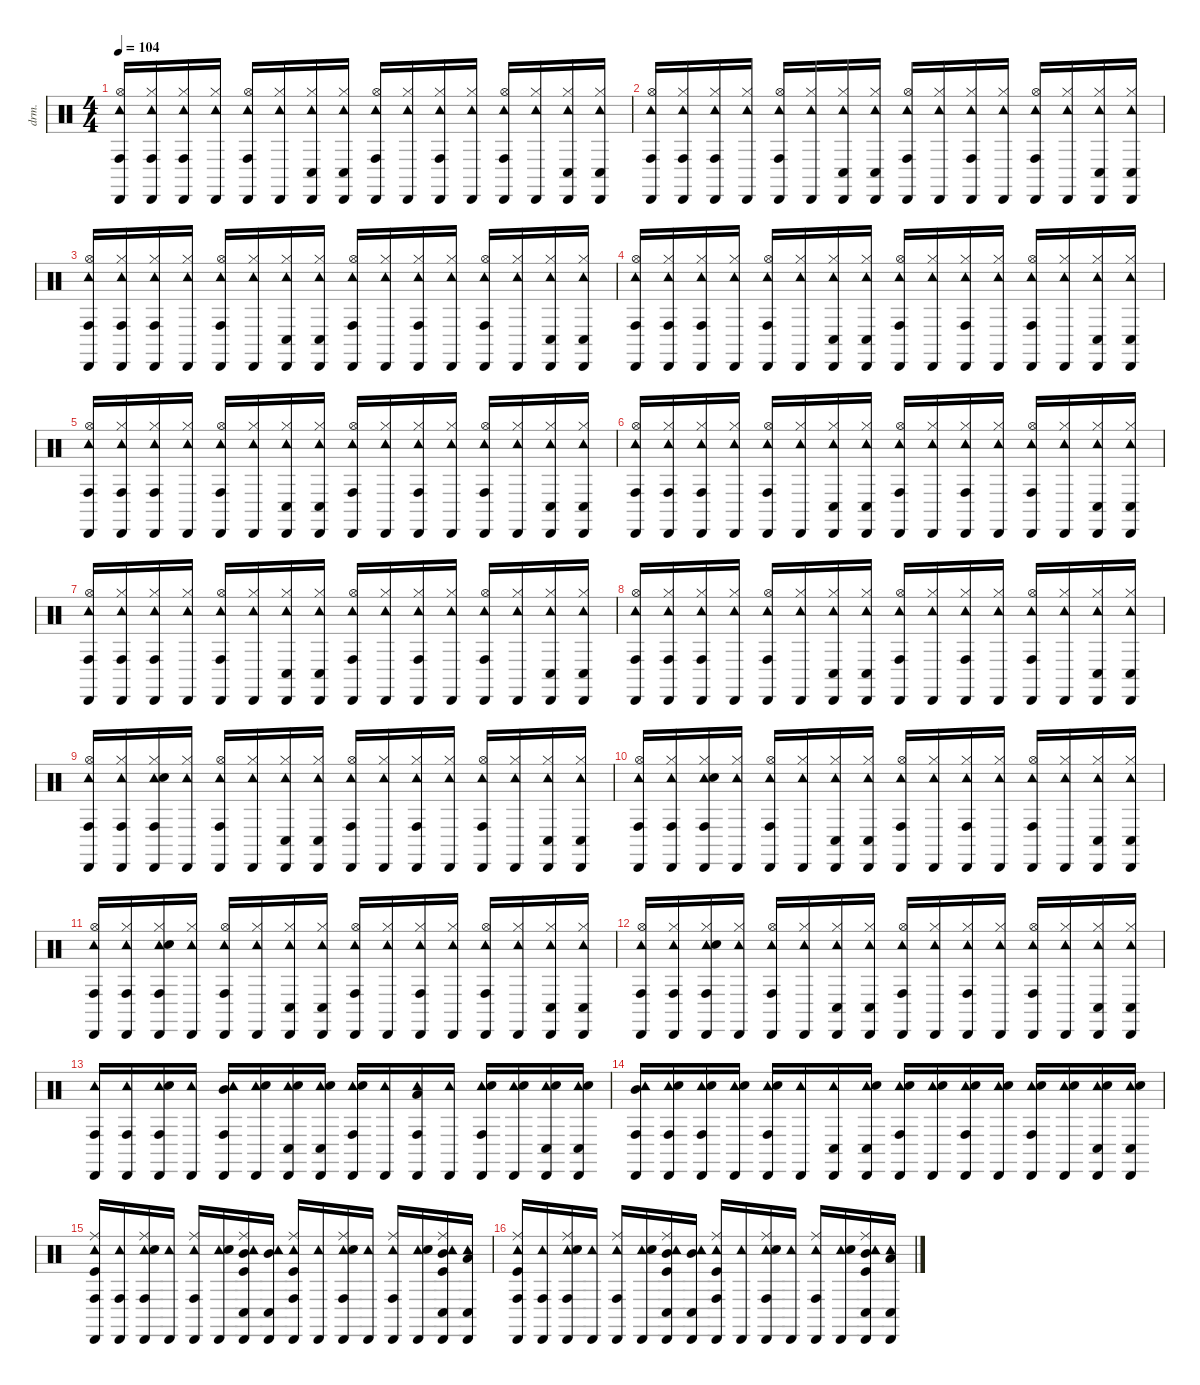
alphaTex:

\defaultSystemsLayout 4
\hideDynamics
\bracketExtendMode nobrackets
\otherSystemsTrackNameOrientation horizontal
\track ("Drums" "drm.") {instrument percussion}
\staff {score}
\articulation defaults
\ts (4 4)
\tempo 104
\clef neutral
\ks c
("Cabasa (hit)" "Hi-Hat (open)" "Tambourine (hit)" "Conga high (hit)").16{dy f beam Up} ("Cabasa (hit)" "Hi-Hat (closed)" "Tambourine (hit)" "Conga high (hit)").16{beam Up} ("Cabasa (hit)" "Hi-Hat (closed)" "Tambourine (hit)" "Conga high (hit)").16{beam Up} ("Cabasa (hit)" "Hi-Hat (closed)" "Tambourine (hit)").16{beam Up} ("Cabasa (hit)" "Hi-Hat (open)" "Tambourine (hit)" "Conga high (hit)").16{beam Up} ("Cabasa (hit)" "Hi-Hat (closed)" "Tambourine (hit)").16{beam Up} ("Cabasa (hit)" "Hi-Hat (closed)" "Tambourine (hit)" "Conga low (hit)").16{beam Up} ("Cabasa (hit)" "Hi-Hat (closed)" "Tambourine (hit)" "Conga low (hit)").16{beam Up} ("Cabasa (hit)" "Hi-Hat (open)" "Tambourine (hit)" "Conga high (hit)").16{beam Up} ("Cabasa (hit)" "Hi-Hat (closed)" "Tambourine (hit)").16{beam Up} ("Cabasa (hit)" "Hi-Hat (closed)" "Tambourine (hit)" "Conga high (hit)").16{beam Up} ("Cabasa (hit)" "Hi-Hat (closed)" "Tambourine (hit)").16{beam Up} ("Cabasa (hit)" "Hi-Hat (open)" "Tambourine (hit)" "Conga high (hit)").16{beam Up} ("Cabasa (hit)" "Hi-Hat (closed)" "Tambourine (hit)").16{beam Up} ("Cabasa (hit)" "Hi-Hat (closed)" "Tambourine (hit)" "Conga low (hit)").16{beam Up} ("Cabasa (hit)" "Hi-Hat (closed)" "Tambourine (hit)" "Conga low (hit)").16{beam Up} |
("Cabasa (hit)" "Hi-Hat (open)" "Tambourine (hit)" "Conga high (hit)").16{beam Up} ("Cabasa (hit)" "Hi-Hat (closed)" "Tambourine (hit)" "Conga high (hit)").16{beam Up} ("Cabasa (hit)" "Hi-Hat (closed)" "Tambourine (hit)" "Conga high (hit)").16{beam Up} ("Cabasa (hit)" "Hi-Hat (closed)" "Tambourine (hit)").16{beam Up} ("Cabasa (hit)" "Hi-Hat (open)" "Tambourine (hit)" "Conga high (hit)").16{beam Up} ("Cabasa (hit)" "Hi-Hat (closed)" "Tambourine (hit)").16{beam Up} ("Cabasa (hit)" "Hi-Hat (closed)" "Tambourine (hit)" "Conga low (hit)").16{beam Up} ("Cabasa (hit)" "Hi-Hat (closed)" "Tambourine (hit)" "Conga low (hit)").16{beam Up} ("Cabasa (hit)" "Hi-Hat (open)" "Tambourine (hit)" "Conga high (hit)").16{beam Up} ("Cabasa (hit)" "Hi-Hat (closed)" "Tambourine (hit)").16{beam Up} ("Cabasa (hit)" "Hi-Hat (closed)" "Tambourine (hit)" "Conga high (hit)").16{beam Up} ("Cabasa (hit)" "Hi-Hat (closed)" "Tambourine (hit)").16{beam Up} ("Cabasa (hit)" "Hi-Hat (open)" "Tambourine (hit)" "Conga high (hit)").16{beam Up} ("Cabasa (hit)" "Hi-Hat (closed)" "Tambourine (hit)").16{beam Up} ("Cabasa (hit)" "Hi-Hat (closed)" "Tambourine (hit)" "Conga low (hit)").16{beam Up} ("Cabasa (hit)" "Hi-Hat (closed)" "Tambourine (hit)" "Conga low (hit)").16{beam Up} |
("Cabasa (hit)" "Hi-Hat (open)" "Tambourine (hit)" "Conga high (hit)").16{beam Up} ("Cabasa (hit)" "Hi-Hat (closed)" "Tambourine (hit)" "Conga high (hit)").16{beam Up} ("Cabasa (hit)" "Hi-Hat (closed)" "Tambourine (hit)" "Conga high (hit)").16{beam Up} ("Cabasa (hit)" "Hi-Hat (closed)" "Tambourine (hit)").16{beam Up} ("Cabasa (hit)" "Hi-Hat (open)" "Tambourine (hit)" "Conga high (hit)").16{beam Up} ("Cabasa (hit)" "Hi-Hat (closed)" "Tambourine (hit)").16{beam Up} ("Cabasa (hit)" "Hi-Hat (closed)" "Tambourine (hit)" "Conga low (hit)").16{beam Up} ("Cabasa (hit)" "Hi-Hat (closed)" "Tambourine (hit)" "Conga low (hit)").16{beam Up} ("Cabasa (hit)" "Hi-Hat (open)" "Tambourine (hit)" "Conga high (hit)").16{beam Up} ("Cabasa (hit)" "Hi-Hat (closed)" "Tambourine (hit)").16{beam Up} ("Cabasa (hit)" "Hi-Hat (closed)" "Tambourine (hit)" "Conga high (hit)").16{beam Up} ("Cabasa (hit)" "Hi-Hat (closed)" "Tambourine (hit)").16{beam Up} ("Cabasa (hit)" "Hi-Hat (open)" "Tambourine (hit)" "Conga high (hit)").16{beam Up} ("Cabasa (hit)" "Hi-Hat (closed)" "Tambourine (hit)").16{beam Up} ("Cabasa (hit)" "Hi-Hat (closed)" "Tambourine (hit)" "Conga low (hit)").16{beam Up} ("Cabasa (hit)" "Hi-Hat (closed)" "Tambourine (hit)" "Conga low (hit)").16{beam Up} |
("Cabasa (hit)" "Hi-Hat (open)" "Tambourine (hit)" "Conga high (hit)").16{beam Up} ("Cabasa (hit)" "Hi-Hat (closed)" "Tambourine (hit)" "Conga high (hit)").16{beam Up} ("Cabasa (hit)" "Hi-Hat (closed)" "Tambourine (hit)" "Conga high (hit)").16{beam Up} ("Cabasa (hit)" "Hi-Hat (closed)" "Tambourine (hit)").16{beam Up} ("Cabasa (hit)" "Hi-Hat (open)" "Tambourine (hit)" "Conga high (hit)").16{beam Up} ("Cabasa (hit)" "Hi-Hat (closed)" "Tambourine (hit)").16{beam Up} ("Cabasa (hit)" "Hi-Hat (closed)" "Tambourine (hit)" "Conga low (hit)").16{beam Up} ("Cabasa (hit)" "Hi-Hat (closed)" "Tambourine (hit)" "Conga low (hit)").16{beam Up} ("Cabasa (hit)" "Hi-Hat (open)" "Tambourine (hit)" "Conga high (hit)").16{beam Up} ("Cabasa (hit)" "Hi-Hat (closed)" "Tambourine (hit)").16{beam Up} ("Cabasa (hit)" "Hi-Hat (closed)" "Tambourine (hit)" "Conga high (hit)").16{beam Up} ("Cabasa (hit)" "Hi-Hat (closed)" "Tambourine (hit)").16{beam Up} ("Cabasa (hit)" "Hi-Hat (open)" "Tambourine (hit)" "Conga high (hit)").16{beam Up} ("Cabasa (hit)" "Hi-Hat (closed)" "Tambourine (hit)").16{beam Up} ("Cabasa (hit)" "Hi-Hat (closed)" "Tambourine (hit)" "Conga low (hit)").16{beam Up} ("Cabasa (hit)" "Hi-Hat (closed)" "Tambourine (hit)" "Conga low (hit)").16{beam Up} |
("Cabasa (hit)" "Hi-Hat (open)" "Tambourine (hit)" "Conga high (hit)").16{beam Up} ("Cabasa (hit)" "Hi-Hat (closed)" "Tambourine (hit)" "Conga high (hit)").16{beam Up} ("Cabasa (hit)" "Hi-Hat (closed)" "Tambourine (hit)" "Conga high (hit)").16{beam Up} ("Cabasa (hit)" "Hi-Hat (closed)" "Tambourine (hit)").16{beam Up} ("Cabasa (hit)" "Hi-Hat (open)" "Tambourine (hit)" "Conga high (hit)").16{beam Up} ("Cabasa (hit)" "Hi-Hat (closed)" "Tambourine (hit)").16{beam Up} ("Cabasa (hit)" "Hi-Hat (closed)" "Tambourine (hit)" "Conga low (hit)").16{beam Up} ("Cabasa (hit)" "Hi-Hat (closed)" "Tambourine (hit)" "Conga low (hit)").16{beam Up} ("Cabasa (hit)" "Hi-Hat (open)" "Tambourine (hit)" "Conga high (hit)").16{beam Up} ("Cabasa (hit)" "Hi-Hat (closed)" "Tambourine (hit)").16{beam Up} ("Cabasa (hit)" "Hi-Hat (closed)" "Tambourine (hit)" "Conga high (hit)").16{beam Up} ("Cabasa (hit)" "Hi-Hat (closed)" "Tambourine (hit)").16{beam Up} ("Cabasa (hit)" "Hi-Hat (open)" "Tambourine (hit)" "Conga high (hit)").16{beam Up} ("Cabasa (hit)" "Hi-Hat (closed)" "Tambourine (hit)").16{beam Up} ("Cabasa (hit)" "Hi-Hat (closed)" "Tambourine (hit)" "Conga low (hit)").16{beam Up} ("Cabasa (hit)" "Hi-Hat (closed)" "Tambourine (hit)" "Conga low (hit)").16{beam Up} |
("Cabasa (hit)" "Hi-Hat (open)" "Tambourine (hit)" "Conga high (hit)").16{beam Up} ("Cabasa (hit)" "Hi-Hat (closed)" "Tambourine (hit)" "Conga high (hit)").16{beam Up} ("Cabasa (hit)" "Hi-Hat (closed)" "Tambourine (hit)" "Conga high (hit)").16{beam Up} ("Cabasa (hit)" "Hi-Hat (closed)" "Tambourine (hit)").16{beam Up} ("Cabasa (hit)" "Hi-Hat (open)" "Tambourine (hit)" "Conga high (hit)").16{beam Up} ("Cabasa (hit)" "Hi-Hat (closed)" "Tambourine (hit)").16{beam Up} ("Cabasa (hit)" "Hi-Hat (closed)" "Tambourine (hit)" "Conga low (hit)").16{beam Up} ("Cabasa (hit)" "Hi-Hat (closed)" "Tambourine (hit)" "Conga low (hit)").16{beam Up} ("Cabasa (hit)" "Hi-Hat (open)" "Tambourine (hit)" "Conga high (hit)").16{beam Up} ("Cabasa (hit)" "Hi-Hat (closed)" "Tambourine (hit)").16{beam Up} ("Cabasa (hit)" "Hi-Hat (closed)" "Tambourine (hit)" "Conga high (hit)").16{beam Up} ("Cabasa (hit)" "Hi-Hat (closed)" "Tambourine (hit)").16{beam Up} ("Cabasa (hit)" "Hi-Hat (open)" "Tambourine (hit)" "Conga high (hit)").16{beam Up} ("Cabasa (hit)" "Hi-Hat (closed)" "Tambourine (hit)").16{beam Up} ("Cabasa (hit)" "Hi-Hat (closed)" "Tambourine (hit)" "Conga low (hit)").16{beam Up} ("Cabasa (hit)" "Hi-Hat (closed)" "Tambourine (hit)" "Conga low (hit)").16{beam Up} |
("Cabasa (hit)" "Hi-Hat (open)" "Tambourine (hit)" "Conga high (hit)").16{beam Up} ("Cabasa (hit)" "Hi-Hat (closed)" "Tambourine (hit)" "Conga high (hit)").16{beam Up} ("Cabasa (hit)" "Hi-Hat (closed)" "Tambourine (hit)" "Conga high (hit)").16{beam Up} ("Cabasa (hit)" "Hi-Hat (closed)" "Tambourine (hit)").16{beam Up} ("Cabasa (hit)" "Hi-Hat (open)" "Tambourine (hit)" "Conga high (hit)").16{beam Up} ("Cabasa (hit)" "Hi-Hat (closed)" "Tambourine (hit)").16{beam Up} ("Cabasa (hit)" "Hi-Hat (closed)" "Tambourine (hit)" "Conga low (hit)").16{beam Up} ("Cabasa (hit)" "Hi-Hat (closed)" "Tambourine (hit)" "Conga low (hit)").16{beam Up} ("Cabasa (hit)" "Hi-Hat (open)" "Tambourine (hit)" "Conga high (hit)").16{beam Up} ("Cabasa (hit)" "Hi-Hat (closed)" "Tambourine (hit)").16{beam Up} ("Cabasa (hit)" "Hi-Hat (closed)" "Tambourine (hit)" "Conga high (hit)").16{beam Up} ("Cabasa (hit)" "Hi-Hat (closed)" "Tambourine (hit)").16{beam Up} ("Cabasa (hit)" "Hi-Hat (open)" "Tambourine (hit)" "Conga high (hit)").16{beam Up} ("Cabasa (hit)" "Hi-Hat (closed)" "Tambourine (hit)").16{beam Up} ("Cabasa (hit)" "Hi-Hat (closed)" "Tambourine (hit)" "Conga low (hit)").16{beam Up} ("Cabasa (hit)" "Hi-Hat (closed)" "Tambourine (hit)" "Conga low (hit)").16{beam Up} |
("Cabasa (hit)" "Hi-Hat (open)" "Tambourine (hit)" "Conga high (hit)").16{beam Up} ("Cabasa (hit)" "Hi-Hat (closed)" "Tambourine (hit)" "Conga high (hit)").16{beam Up} ("Cabasa (hit)" "Hi-Hat (closed)" "Tambourine (hit)" "Conga high (hit)").16{beam Up} ("Cabasa (hit)" "Hi-Hat (closed)" "Tambourine (hit)").16{beam Up} ("Cabasa (hit)" "Hi-Hat (open)" "Tambourine (hit)" "Conga high (hit)").16{beam Up} ("Cabasa (hit)" "Hi-Hat (closed)" "Tambourine (hit)").16{beam Up} ("Cabasa (hit)" "Hi-Hat (closed)" "Tambourine (hit)" "Conga low (hit)").16{beam Up} ("Cabasa (hit)" "Hi-Hat (closed)" "Tambourine (hit)" "Conga low (hit)").16{beam Up} ("Cabasa (hit)" "Hi-Hat (open)" "Tambourine (hit)" "Conga high (hit)").16{beam Up} ("Cabasa (hit)" "Hi-Hat (closed)" "Tambourine (hit)").16{beam Up} ("Cabasa (hit)" "Hi-Hat (closed)" "Tambourine (hit)" "Conga high (hit)").16{beam Up} ("Cabasa (hit)" "Hi-Hat (closed)" "Tambourine (hit)").16{beam Up} ("Cabasa (hit)" "Hi-Hat (open)" "Tambourine (hit)" "Conga high (hit)").16{beam Up} ("Cabasa (hit)" "Hi-Hat (closed)" "Tambourine (hit)").16{beam Up} ("Cabasa (hit)" "Hi-Hat (closed)" "Tambourine (hit)" "Conga low (hit)").16{beam Up} ("Cabasa (hit)" "Hi-Hat (closed)" "Tambourine (hit)" "Conga low (hit)").16{beam Up} |
("Cabasa (hit)" "Hi-Hat (open)" "Tambourine (hit)" "Conga high (hit)").16{beam Up} ("Cabasa (hit)" "Hi-Hat (closed)" "Tambourine (hit)" "Conga high (hit)").16{beam Up} ("Cabasa (hit)" "Hi-Hat (closed)" "Tambourine (hit)" "Conga high (hit)" "Snare (hit) 2").16{beam Up} ("Cabasa (hit)" "Hi-Hat (closed)" "Tambourine (hit)").16{beam Up} ("Cabasa (hit)" "Hi-Hat (open)" "Tambourine (hit)" "Conga high (hit)").16{beam Up} ("Cabasa (hit)" "Hi-Hat (closed)" "Tambourine (hit)").16{beam Up} ("Cabasa (hit)" "Hi-Hat (closed)" "Tambourine (hit)" "Conga low (hit)").16{beam Up} ("Cabasa (hit)" "Hi-Hat (closed)" "Tambourine (hit)" "Conga low (hit)").16{beam Up} ("Cabasa (hit)" "Hi-Hat (open)" "Tambourine (hit)" "Conga high (hit)").16{beam Up} ("Cabasa (hit)" "Hi-Hat (closed)" "Tambourine (hit)").16{beam Up} ("Cabasa (hit)" "Hi-Hat (closed)" "Tambourine (hit)" "Conga high (hit)").16{beam Up} ("Cabasa (hit)" "Hi-Hat (closed)" "Tambourine (hit)").16{beam Up} ("Cabasa (hit)" "Hi-Hat (open)" "Tambourine (hit)" "Conga high (hit)").16{beam Up} ("Cabasa (hit)" "Hi-Hat (closed)" "Tambourine (hit)").16{beam Up} ("Cabasa (hit)" "Hi-Hat (closed)" "Tambourine (hit)" "Conga low (hit)").16{beam Up} ("Cabasa (hit)" "Hi-Hat (closed)" "Tambourine (hit)" "Conga low (hit)").16{beam Up} |
("Cabasa (hit)" "Hi-Hat (open)" "Tambourine (hit)" "Conga high (hit)").16{beam Up} ("Cabasa (hit)" "Hi-Hat (closed)" "Tambourine (hit)" "Conga high (hit)").16{beam Up} ("Cabasa (hit)" "Hi-Hat (closed)" "Tambourine (hit)" "Conga high (hit)" "Snare (hit) 2").16{beam Up} ("Cabasa (hit)" "Hi-Hat (closed)" "Tambourine (hit)").16{beam Up} ("Cabasa (hit)" "Hi-Hat (open)" "Tambourine (hit)" "Conga high (hit)").16{beam Up} ("Cabasa (hit)" "Hi-Hat (closed)" "Tambourine (hit)").16{beam Up} ("Cabasa (hit)" "Hi-Hat (closed)" "Tambourine (hit)" "Conga low (hit)").16{beam Up} ("Cabasa (hit)" "Hi-Hat (closed)" "Tambourine (hit)" "Conga low (hit)").16{beam Up} ("Cabasa (hit)" "Hi-Hat (open)" "Tambourine (hit)" "Conga high (hit)").16{beam Up} ("Cabasa (hit)" "Hi-Hat (closed)" "Tambourine (hit)").16{beam Up} ("Cabasa (hit)" "Hi-Hat (closed)" "Tambourine (hit)" "Conga high (hit)").16{beam Up} ("Cabasa (hit)" "Hi-Hat (closed)" "Tambourine (hit)").16{beam Up} ("Cabasa (hit)" "Hi-Hat (open)" "Tambourine (hit)" "Conga high (hit)").16{beam Up} ("Cabasa (hit)" "Hi-Hat (closed)" "Tambourine (hit)").16{beam Up} ("Cabasa (hit)" "Hi-Hat (closed)" "Tambourine (hit)" "Conga low (hit)").16{beam Up} ("Cabasa (hit)" "Hi-Hat (closed)" "Tambourine (hit)" "Conga low (hit)").16{beam Up} |
("Cabasa (hit)" "Hi-Hat (open)" "Tambourine (hit)" "Conga high (hit)").16{beam Up} ("Cabasa (hit)" "Hi-Hat (closed)" "Tambourine (hit)" "Conga high (hit)").16{beam Up} ("Cabasa (hit)" "Hi-Hat (closed)" "Tambourine (hit)" "Conga high (hit)" "Snare (hit) 2").16{beam Up} ("Cabasa (hit)" "Hi-Hat (closed)" "Tambourine (hit)").16{beam Up} ("Cabasa (hit)" "Hi-Hat (open)" "Tambourine (hit)" "Conga high (hit)").16{beam Up} ("Cabasa (hit)" "Hi-Hat (closed)" "Tambourine (hit)").16{beam Up} ("Cabasa (hit)" "Hi-Hat (closed)" "Tambourine (hit)" "Conga low (hit)").16{beam Up} ("Cabasa (hit)" "Hi-Hat (closed)" "Tambourine (hit)" "Conga low (hit)").16{beam Up} ("Cabasa (hit)" "Hi-Hat (open)" "Tambourine (hit)" "Conga high (hit)").16{beam Up} ("Cabasa (hit)" "Hi-Hat (closed)" "Tambourine (hit)").16{beam Up} ("Cabasa (hit)" "Hi-Hat (closed)" "Tambourine (hit)" "Conga high (hit)").16{beam Up} ("Cabasa (hit)" "Hi-Hat (closed)" "Tambourine (hit)").16{beam Up} ("Cabasa (hit)" "Hi-Hat (open)" "Tambourine (hit)" "Conga high (hit)").16{beam Up} ("Cabasa (hit)" "Hi-Hat (closed)" "Tambourine (hit)").16{beam Up} ("Cabasa (hit)" "Hi-Hat (closed)" "Tambourine (hit)" "Conga low (hit)").16{beam Up} ("Cabasa (hit)" "Hi-Hat (closed)" "Tambourine (hit)" "Conga low (hit)").16{beam Up} |
("Cabasa (hit)" "Hi-Hat (open)" "Tambourine (hit)" "Conga high (hit)").16{beam Up} ("Cabasa (hit)" "Hi-Hat (closed)" "Tambourine (hit)" "Conga high (hit)").16{beam Up} ("Cabasa (hit)" "Hi-Hat (closed)" "Tambourine (hit)" "Conga high (hit)" "Snare (hit) 2").16{beam Up} ("Cabasa (hit)" "Hi-Hat (closed)" "Tambourine (hit)").16{beam Up} ("Cabasa (hit)" "Hi-Hat (open)" "Tambourine (hit)" "Conga high (hit)").16{beam Up} ("Cabasa (hit)" "Hi-Hat (closed)" "Tambourine (hit)").16{beam Up} ("Cabasa (hit)" "Hi-Hat (closed)" "Tambourine (hit)" "Conga low (hit)").16{beam Up} ("Cabasa (hit)" "Hi-Hat (closed)" "Tambourine (hit)" "Conga low (hit)").16{beam Up} ("Cabasa (hit)" "Hi-Hat (open)" "Tambourine (hit)" "Conga high (hit)").16{beam Up} ("Cabasa (hit)" "Hi-Hat (closed)" "Tambourine (hit)").16{beam Up} ("Cabasa (hit)" "Hi-Hat (closed)" "Tambourine (hit)" "Conga high (hit)").16{beam Up} ("Cabasa (hit)" "Hi-Hat (closed)" "Tambourine (hit)").16{beam Up} ("Cabasa (hit)" "Hi-Hat (open)" "Tambourine (hit)" "Conga high (hit)").16{beam Up} ("Cabasa (hit)" "Hi-Hat (closed)" "Tambourine (hit)").16{beam Up} ("Cabasa (hit)" "Hi-Hat (closed)" "Tambourine (hit)" "Conga low (hit)").16{beam Up} ("Cabasa (hit)" "Hi-Hat (closed)" "Tambourine (hit)" "Conga low (hit)").16{beam Up} |
("Cabasa (hit)" "Conga high (hit)" "Tambourine (hit)").16{beam Up} ("Cabasa (hit)" "Conga high (hit)" "Tambourine (hit)").16{beam Up} ("Cabasa (hit)" "Conga high (hit)" "Tambourine (hit)" "Snare (hit) 2").16{beam Up} ("Cabasa (hit)" "Tambourine (hit)").16{beam Up} ("Cabasa (hit)" "Conga high (hit)" "Tambourine (hit)" "Mid Tom (hit)").16{beam Up} ("Cabasa (hit)" "Tambourine (hit)" "Snare (hit) 2").16{beam Up} ("Cabasa (hit)" "Conga low (hit)" "Tambourine (hit)" "Snare (hit) 2").16{beam Up} ("Cabasa (hit)" "Conga low (hit)" "Tambourine (hit)" "Snare (hit) 2").16{beam Up} ("Cabasa (hit)" "Conga high (hit)" "Tambourine (hit)" "Snare (hit) 2").16{beam Up} ("Cabasa (hit)" "Tambourine (hit)").16{beam Up} ("Cabasa (hit)" "Conga high (hit)" "Tambourine (hit)" "Low Tom (hit)").16{beam Up} ("Cabasa (hit)" "Tambourine (hit)").16{beam Up} ("Cabasa (hit)" "Conga high (hit)" "Tambourine (hit)" "Snare (hit) 2").16{beam Up} ("Cabasa (hit)" "Tambourine (hit)" "Snare (hit) 2").16{beam Up} ("Cabasa (hit)" "Conga low (hit)" "Tambourine (hit)" "Snare (hit) 2").16{beam Up} ("Cabasa (hit)" "Conga low (hit)" "Tambourine (hit)" "Snare (hit) 2").16{beam Up} |
("Cabasa (hit)" "Conga high (hit)" "Tambourine (hit)" "Mid Tom (hit)").16{beam Up} ("Cabasa (hit)" "Conga high (hit)" "Tambourine (hit)" "Snare (hit) 2").16{beam Up} ("Cabasa (hit)" "Conga high (hit)" "Tambourine (hit)" "Snare (hit) 2").16{beam Up} ("Cabasa (hit)" "Tambourine (hit)" "Snare (hit) 2").16{beam Up} ("Cabasa (hit)" "Conga high (hit)" "Tambourine (hit)" "Snare (hit) 2").16{beam Up} ("Cabasa (hit)" "Tambourine (hit)").16{beam Up} ("Cabasa (hit)" "Conga low (hit)" "Tambourine (hit)").16{beam Up} ("Cabasa (hit)" "Conga low (hit)" "Tambourine (hit)" "Snare (hit) 2").16{beam Up} ("Cabasa (hit)" "Conga high (hit)" "Tambourine (hit)" "Snare (hit) 2").16{beam Up} ("Cabasa (hit)" "Tambourine (hit)" "Snare (hit) 2").16{beam Up} ("Cabasa (hit)" "Conga high (hit)" "Tambourine (hit)" "Snare (hit) 2").16{beam Up} ("Cabasa (hit)" "Tambourine (hit)" "Snare (hit) 2").16{beam Up} ("Cabasa (hit)" "Conga high (hit)" "Tambourine (hit)" "Snare (hit) 2").16{beam Up} ("Cabasa (hit)" "Tambourine (hit)" "Snare (hit) 2").16{beam Up} ("Cabasa (hit)" "Conga low (hit)" "Tambourine (hit)" "Snare (hit) 2").16{beam Up} ("Cabasa (hit)" "Conga low (hit)" "Tambourine (hit)" "Snare (hit) 2").16{beam Up} |
("Cabasa (hit)" "Conga high (hit)" "Tambourine (hit)" "Ride (middle)" "Kick (hit)").16{beam Up} ("Cabasa (hit)" "Conga high (hit)" "Tambourine (hit)").16{beam Up} ("Cabasa (hit)" "Conga high (hit)" "Tambourine (hit)" "Ride (middle)" "Snare (hit) 2").16{beam Up} ("Cabasa (hit)" "Tambourine (hit)").16{beam Up} ("Cabasa (hit)" "Conga high (hit)" "Tambourine (hit)" "Ride (middle)").16{beam Up} ("Cabasa (hit)" "Tambourine (hit)" "Snare (hit) 2").16{beam Up} ("Cabasa (hit)" "Conga low (hit)" "Tambourine (hit)" "Ride (middle)" "Mid Tom (hit)" "Kick (hit)").16{beam Up} ("Cabasa (hit)" "Conga low (hit)" "Tambourine (hit)" "Mid Tom (hit)").16{beam Up} ("Cabasa (hit)" "Conga high (hit)" "Tambourine (hit)" "Ride (middle)" "Kick (hit)").16{beam Up} ("Cabasa (hit)" "Tambourine (hit)").16{beam Up} ("Cabasa (hit)" "Conga high (hit)" "Tambourine (hit)" "Ride (middle)" "Snare (hit) 2").16{beam Up} ("Cabasa (hit)" "Tambourine (hit)").16{beam Up} ("Cabasa (hit)" "Conga high (hit)" "Tambourine (hit)" "Ride (middle)").16{beam Up} ("Cabasa (hit)" "Tambourine (hit)" "Snare (hit) 2").16{beam Up} ("Cabasa (hit)" "Conga low (hit)" "Tambourine (hit)" "Ride (middle)" "Mid Tom (hit)" "Kick (hit)").16{beam Up} ("Cabasa (hit)" "Conga low (hit)" "Tambourine (hit)" "Low Tom (hit)").16{beam Up} |
("Cabasa (hit)" "Conga high (hit)" "Tambourine (hit)" "Ride (middle)" "Kick (hit)").16{beam Up} ("Cabasa (hit)" "Conga high (hit)" "Tambourine (hit)").16{beam Up} ("Cabasa (hit)" "Conga high (hit)" "Tambourine (hit)" "Ride (middle)" "Snare (hit) 2").16{beam Up} ("Cabasa (hit)" "Tambourine (hit)").16{beam Up} ("Cabasa (hit)" "Conga high (hit)" "Tambourine (hit)" "Ride (middle)").16{beam Up} ("Cabasa (hit)" "Tambourine (hit)" "Snare (hit) 2").16{beam Up} ("Cabasa (hit)" "Conga low (hit)" "Tambourine (hit)" "Ride (middle)" "Mid Tom (hit)" "Kick (hit)").16{beam Up} ("Cabasa (hit)" "Conga low (hit)" "Tambourine (hit)" "Mid Tom (hit)").16{beam Up} ("Cabasa (hit)" "Conga high (hit)" "Tambourine (hit)" "Ride (middle)" "Kick (hit)").16{beam Up} ("Cabasa (hit)" "Tambourine (hit)").16{beam Up} ("Cabasa (hit)" "Conga high (hit)" "Tambourine (hit)" "Ride (middle)" "Snare (hit) 2").16{beam Up} ("Cabasa (hit)" "Tambourine (hit)").16{beam Up} ("Cabasa (hit)" "Conga high (hit)" "Tambourine (hit)" "Ride (middle)").16{beam Up} ("Cabasa (hit)" "Tambourine (hit)" "Snare (hit) 2").16{beam Up} ("Cabasa (hit)" "Conga low (hit)" "Tambourine (hit)" "Ride (middle)" "Mid Tom (hit)" "Kick (hit)").16{beam Up} ("Cabasa (hit)" "Conga low (hit)" "Tambourine (hit)" "Low Tom (hit)").16{beam Up}
